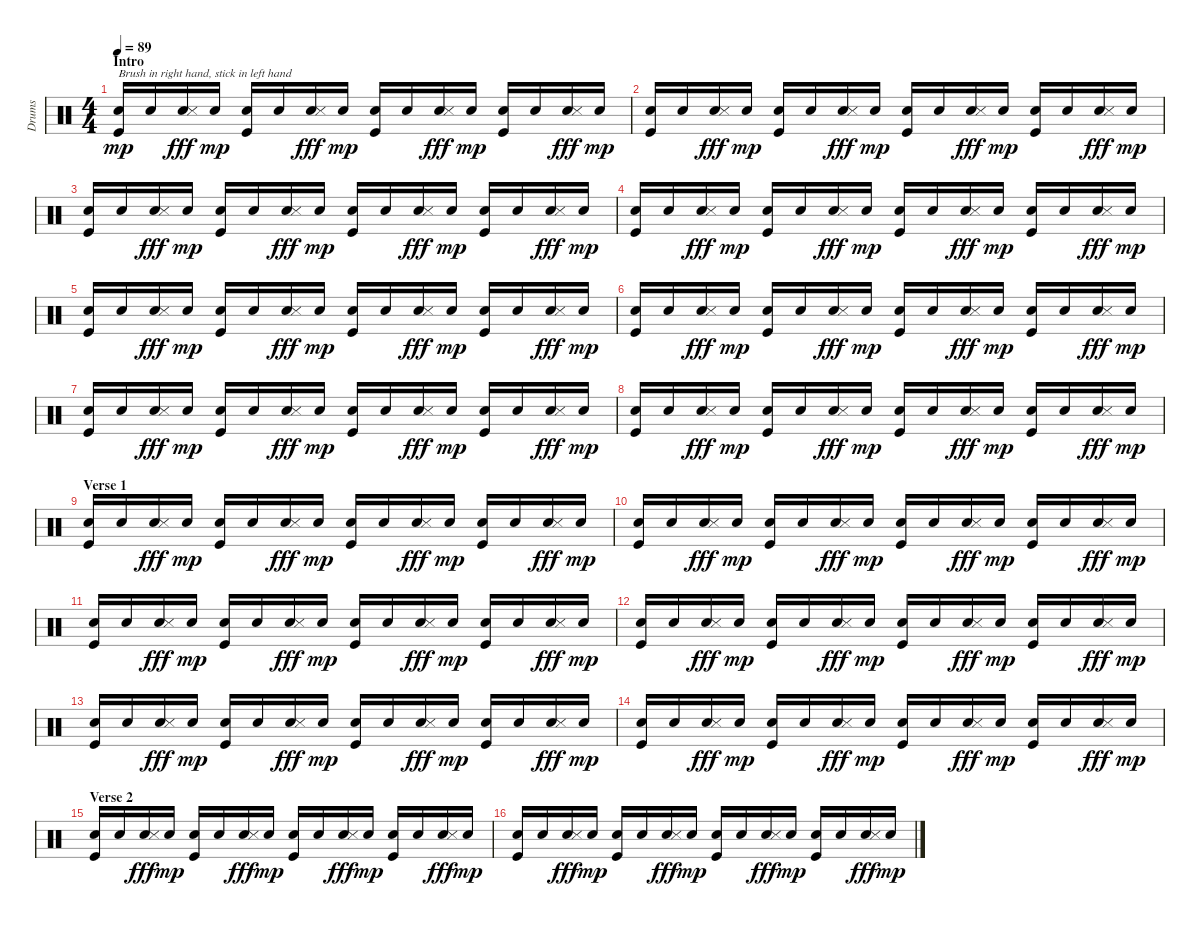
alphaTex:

\track ("Drums" "Drums") {instrument percussion}
\staff {score}
\articulation defaults
\ts (4 4)
\section ("" "Intro")
\tempo 89
\clef neutral
\ks c
("Snare (hit) 2" "Kick (hit)").16{txt "Brush in right hand, stick in left hand" dy mp} "Snare (hit) 2".16 ("Snare (hit) 2" "Snare (side stick) 3").16{dy fff} "Snare (hit) 2".16{dy mp} ("Snare (hit) 2" "Kick (hit)").16 "Snare (hit) 2".16 ("Snare (hit) 2" "Snare (side stick) 3").16{dy fff} "Snare (hit) 2".16{dy mp} ("Snare (hit) 2" "Kick (hit)").16 "Snare (hit) 2".16 ("Snare (hit) 2" "Snare (side stick) 3").16{dy fff} "Snare (hit) 2".16{dy mp} ("Snare (hit) 2" "Kick (hit)").16 "Snare (hit) 2".16 ("Snare (hit) 2" "Snare (side stick) 3").16{dy fff} "Snare (hit) 2".16{dy mp} |
("Snare (hit) 2" "Kick (hit)").16 "Snare (hit) 2".16 ("Snare (hit) 2" "Snare (side stick) 3").16{dy fff} "Snare (hit) 2".16{dy mp} ("Snare (hit) 2" "Kick (hit)").16 "Snare (hit) 2".16 ("Snare (hit) 2" "Snare (side stick) 3").16{dy fff} "Snare (hit) 2".16{dy mp} ("Snare (hit) 2" "Kick (hit)").16 "Snare (hit) 2".16 ("Snare (hit) 2" "Snare (side stick) 3").16{dy fff} "Snare (hit) 2".16{dy mp} ("Snare (hit) 2" "Kick (hit)").16 "Snare (hit) 2".16 ("Snare (hit) 2" "Snare (side stick) 3").16{dy fff} "Snare (hit) 2".16{dy mp} |
("Snare (hit) 2" "Kick (hit)").16 "Snare (hit) 2".16 ("Snare (hit) 2" "Snare (side stick) 3").16{dy fff} "Snare (hit) 2".16{dy mp} ("Snare (hit) 2" "Kick (hit)").16 "Snare (hit) 2".16 ("Snare (hit) 2" "Snare (side stick) 3").16{dy fff} "Snare (hit) 2".16{dy mp} ("Snare (hit) 2" "Kick (hit)").16 "Snare (hit) 2".16 ("Snare (hit) 2" "Snare (side stick) 3").16{dy fff} "Snare (hit) 2".16{dy mp} ("Snare (hit) 2" "Kick (hit)").16 "Snare (hit) 2".16 ("Snare (hit) 2" "Snare (side stick) 3").16{dy fff} "Snare (hit) 2".16{dy mp} |
("Snare (hit) 2" "Kick (hit)").16 "Snare (hit) 2".16 ("Snare (hit) 2" "Snare (side stick) 3").16{dy fff} "Snare (hit) 2".16{dy mp} ("Snare (hit) 2" "Kick (hit)").16 "Snare (hit) 2".16 ("Snare (hit) 2" "Snare (side stick) 3").16{dy fff} "Snare (hit) 2".16{dy mp} ("Snare (hit) 2" "Kick (hit)").16 "Snare (hit) 2".16 ("Snare (hit) 2" "Snare (side stick) 3").16{dy fff} "Snare (hit) 2".16{dy mp} ("Snare (hit) 2" "Kick (hit)").16 "Snare (hit) 2".16 ("Snare (hit) 2" "Snare (side stick) 3").16{dy fff} "Snare (hit) 2".16{dy mp} |
("Snare (hit) 2" "Kick (hit)").16 "Snare (hit) 2".16 ("Snare (hit) 2" "Snare (side stick) 3").16{dy fff} "Snare (hit) 2".16{dy mp} ("Snare (hit) 2" "Kick (hit)").16 "Snare (hit) 2".16 ("Snare (hit) 2" "Snare (side stick) 3").16{dy fff} "Snare (hit) 2".16{dy mp} ("Snare (hit) 2" "Kick (hit)").16 "Snare (hit) 2".16 ("Snare (hit) 2" "Snare (side stick) 3").16{dy fff} "Snare (hit) 2".16{dy mp} ("Snare (hit) 2" "Kick (hit)").16 "Snare (hit) 2".16 ("Snare (hit) 2" "Snare (side stick) 3").16{dy fff} "Snare (hit) 2".16{dy mp} |
("Snare (hit) 2" "Kick (hit)").16 "Snare (hit) 2".16 ("Snare (hit) 2" "Snare (side stick) 3").16{dy fff} "Snare (hit) 2".16{dy mp} ("Snare (hit) 2" "Kick (hit)").16 "Snare (hit) 2".16 ("Snare (hit) 2" "Snare (side stick) 3").16{dy fff} "Snare (hit) 2".16{dy mp} ("Snare (hit) 2" "Kick (hit)").16 "Snare (hit) 2".16 ("Snare (hit) 2" "Snare (side stick) 3").16{dy fff} "Snare (hit) 2".16{dy mp} ("Snare (hit) 2" "Kick (hit)").16 "Snare (hit) 2".16 ("Snare (hit) 2" "Snare (side stick) 3").16{dy fff} "Snare (hit) 2".16{dy mp} |
("Snare (hit) 2" "Kick (hit)").16 "Snare (hit) 2".16 ("Snare (hit) 2" "Snare (side stick) 3").16{dy fff} "Snare (hit) 2".16{dy mp} ("Snare (hit) 2" "Kick (hit)").16 "Snare (hit) 2".16 ("Snare (hit) 2" "Snare (side stick) 3").16{dy fff} "Snare (hit) 2".16{dy mp} ("Snare (hit) 2" "Kick (hit)").16 "Snare (hit) 2".16 ("Snare (hit) 2" "Snare (side stick) 3").16{dy fff} "Snare (hit) 2".16{dy mp} ("Snare (hit) 2" "Kick (hit)").16 "Snare (hit) 2".16 ("Snare (hit) 2" "Snare (side stick) 3").16{dy fff} "Snare (hit) 2".16{dy mp} |
("Snare (hit) 2" "Kick (hit)").16 "Snare (hit) 2".16 ("Snare (hit) 2" "Snare (side stick) 3").16{dy fff} "Snare (hit) 2".16{dy mp} ("Snare (hit) 2" "Kick (hit)").16 "Snare (hit) 2".16 ("Snare (hit) 2" "Snare (side stick) 3").16{dy fff} "Snare (hit) 2".16{dy mp} ("Snare (hit) 2" "Kick (hit)").16 "Snare (hit) 2".16 ("Snare (hit) 2" "Snare (side stick) 3").16{dy fff} "Snare (hit) 2".16{dy mp} ("Snare (hit) 2" "Kick (hit)").16 "Snare (hit) 2".16 ("Snare (hit) 2" "Snare (side stick) 3").16{dy fff} "Snare (hit) 2".16{dy mp} |
\section ("" "Verse 1")
("Snare (hit) 2" "Kick (hit)").16 "Snare (hit) 2".16 ("Snare (hit) 2" "Snare (side stick) 3").16{dy fff} "Snare (hit) 2".16{dy mp} ("Snare (hit) 2" "Kick (hit)").16 "Snare (hit) 2".16 ("Snare (hit) 2" "Snare (side stick) 3").16{dy fff} "Snare (hit) 2".16{dy mp} ("Snare (hit) 2" "Kick (hit)").16 "Snare (hit) 2".16 ("Snare (hit) 2" "Snare (side stick) 3").16{dy fff} "Snare (hit) 2".16{dy mp} ("Snare (hit) 2" "Kick (hit)").16 "Snare (hit) 2".16 ("Snare (hit) 2" "Snare (side stick) 3").16{dy fff} "Snare (hit) 2".16{dy mp} |
("Snare (hit) 2" "Kick (hit)").16 "Snare (hit) 2".16 ("Snare (hit) 2" "Snare (side stick) 3").16{dy fff} "Snare (hit) 2".16{dy mp} ("Snare (hit) 2" "Kick (hit)").16 "Snare (hit) 2".16 ("Snare (hit) 2" "Snare (side stick) 3").16{dy fff} "Snare (hit) 2".16{dy mp} ("Snare (hit) 2" "Kick (hit)").16 "Snare (hit) 2".16 ("Snare (hit) 2" "Snare (side stick) 3").16{dy fff} "Snare (hit) 2".16{dy mp} ("Snare (hit) 2" "Kick (hit)").16 "Snare (hit) 2".16 ("Snare (hit) 2" "Snare (side stick) 3").16{dy fff} "Snare (hit) 2".16{dy mp} |
("Snare (hit) 2" "Kick (hit)").16 "Snare (hit) 2".16 ("Snare (hit) 2" "Snare (side stick) 3").16{dy fff} "Snare (hit) 2".16{dy mp} ("Snare (hit) 2" "Kick (hit)").16 "Snare (hit) 2".16 ("Snare (hit) 2" "Snare (side stick) 3").16{dy fff} "Snare (hit) 2".16{dy mp} ("Snare (hit) 2" "Kick (hit)").16 "Snare (hit) 2".16 ("Snare (hit) 2" "Snare (side stick) 3").16{dy fff} "Snare (hit) 2".16{dy mp} ("Snare (hit) 2" "Kick (hit)").16 "Snare (hit) 2".16 ("Snare (hit) 2" "Snare (side stick) 3").16{dy fff} "Snare (hit) 2".16{dy mp} |
("Snare (hit) 2" "Kick (hit)").16 "Snare (hit) 2".16 ("Snare (hit) 2" "Snare (side stick) 3").16{dy fff} "Snare (hit) 2".16{dy mp} ("Snare (hit) 2" "Kick (hit)").16 "Snare (hit) 2".16 ("Snare (hit) 2" "Snare (side stick) 3").16{dy fff} "Snare (hit) 2".16{dy mp} ("Snare (hit) 2" "Kick (hit)").16 "Snare (hit) 2".16 ("Snare (hit) 2" "Snare (side stick) 3").16{dy fff} "Snare (hit) 2".16{dy mp} ("Snare (hit) 2" "Kick (hit)").16 "Snare (hit) 2".16 ("Snare (hit) 2" "Snare (side stick) 3").16{dy fff} "Snare (hit) 2".16{dy mp} |
("Snare (hit) 2" "Kick (hit)").16 "Snare (hit) 2".16 ("Snare (hit) 2" "Snare (side stick) 3").16{dy fff} "Snare (hit) 2".16{dy mp} ("Snare (hit) 2" "Kick (hit)").16 "Snare (hit) 2".16 ("Snare (hit) 2" "Snare (side stick) 3").16{dy fff} "Snare (hit) 2".16{dy mp} ("Snare (hit) 2" "Kick (hit)").16 "Snare (hit) 2".16 ("Snare (hit) 2" "Snare (side stick) 3").16{dy fff} "Snare (hit) 2".16{dy mp} ("Snare (hit) 2" "Kick (hit)").16 "Snare (hit) 2".16 ("Snare (hit) 2" "Snare (side stick) 3").16{dy fff} "Snare (hit) 2".16{dy mp} |
("Snare (hit) 2" "Kick (hit)").16 "Snare (hit) 2".16 ("Snare (hit) 2" "Snare (side stick) 3").16{dy fff} "Snare (hit) 2".16{dy mp} ("Snare (hit) 2" "Kick (hit)").16 "Snare (hit) 2".16 ("Snare (hit) 2" "Snare (side stick) 3").16{dy fff} "Snare (hit) 2".16{dy mp} ("Snare (hit) 2" "Kick (hit)").16 "Snare (hit) 2".16 ("Snare (hit) 2" "Snare (side stick) 3").16{dy fff} "Snare (hit) 2".16{dy mp} ("Snare (hit) 2" "Kick (hit)").16 "Snare (hit) 2".16 ("Snare (hit) 2" "Snare (side stick) 3").16{dy fff} "Snare (hit) 2".16{dy mp} |
\section ("" "Verse 2")
("Snare (hit) 2" "Kick (hit)").16 "Snare (hit) 2".16 ("Snare (hit) 2" "Snare (side stick) 3").16{dy fff} "Snare (hit) 2".16{dy mp} ("Snare (hit) 2" "Kick (hit)").16 "Snare (hit) 2".16 ("Snare (hit) 2" "Snare (side stick) 3").16{dy fff} "Snare (hit) 2".16{dy mp} ("Snare (hit) 2" "Kick (hit)").16 "Snare (hit) 2".16 ("Snare (hit) 2" "Snare (side stick) 3").16{dy fff} "Snare (hit) 2".16{dy mp} ("Snare (hit) 2" "Kick (hit)").16 "Snare (hit) 2".16 ("Snare (hit) 2" "Snare (side stick) 3").16{dy fff} "Snare (hit) 2".16{dy mp} |
("Snare (hit) 2" "Kick (hit)").16 "Snare (hit) 2".16 ("Snare (hit) 2" "Snare (side stick) 3").16{dy fff} "Snare (hit) 2".16{dy mp} ("Snare (hit) 2" "Kick (hit)").16 "Snare (hit) 2".16 ("Snare (hit) 2" "Snare (side stick) 3").16{dy fff} "Snare (hit) 2".16{dy mp} ("Snare (hit) 2" "Kick (hit)").16 "Snare (hit) 2".16 ("Snare (hit) 2" "Snare (side stick) 3").16{dy fff} "Snare (hit) 2".16{dy mp} ("Snare (hit) 2" "Kick (hit)").16 "Snare (hit) 2".16 ("Snare (hit) 2" "Snare (side stick) 3").16{dy fff} "Snare (hit) 2".16{dy mp}
